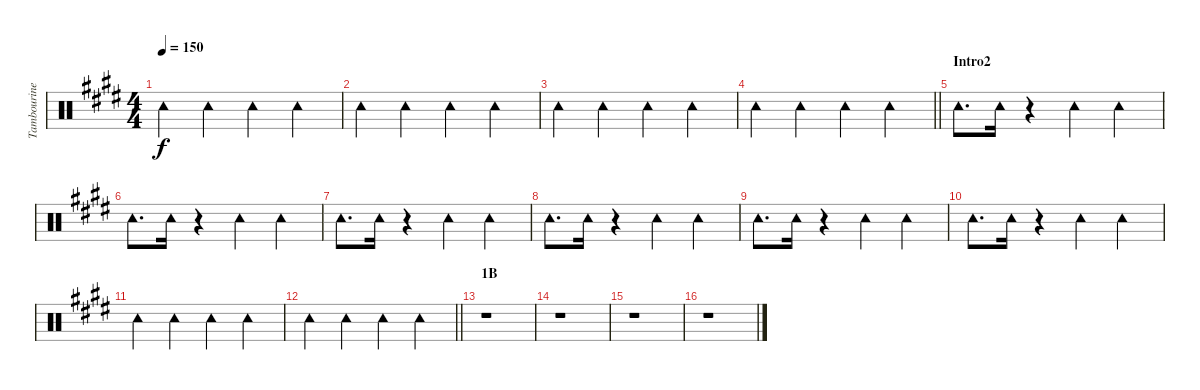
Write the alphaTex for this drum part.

\track ("Tambourine" "Tambourine") {instrument percussion}
\staff {score}
\articulation defaults
\ts (4 4)
\tempo 150
\clef neutral
\ks e "Tambourine (hit)".4{dy f} "Tambourine (hit)".4 "Tambourine (hit)".4 "Tambourine (hit)".4
|
"Tambourine (hit)".4 "Tambourine (hit)".4 "Tambourine (hit)".4 "Tambourine (hit)".4 |
"Tambourine (hit)".4 "Tambourine (hit)".4 "Tambourine (hit)".4 "Tambourine (hit)".4 |
\barLineRight lightlight "Tambourine (hit)".4 "Tambourine (hit)".4 "Tambourine (hit)".4 "Tambourine (hit)".4
|
\section ("" "Intro2")
"Tambourine (hit)".8{d} "Tambourine (hit)".16 r.4 "Tambourine (hit)".4 "Tambourine (hit)".4 |
"Tambourine (hit)".8{d} "Tambourine (hit)".16 r.4 "Tambourine (hit)".4 "Tambourine (hit)".4 |
"Tambourine (hit)".8{d} "Tambourine (hit)".16 r.4 "Tambourine (hit)".4 "Tambourine (hit)".4 |
"Tambourine (hit)".8{d} "Tambourine (hit)".16 r.4 "Tambourine (hit)".4 "Tambourine (hit)".4 |
"Tambourine (hit)".8{d} "Tambourine (hit)".16 r.4 "Tambourine (hit)".4 "Tambourine (hit)".4 |
"Tambourine (hit)".8{d} "Tambourine (hit)".16 r.4 "Tambourine (hit)".4 "Tambourine (hit)".4 |
"Tambourine (hit)".4 "Tambourine (hit)".4 "Tambourine (hit)".4 "Tambourine (hit)".4 |
\barLineRight lightlight "Tambourine (hit)".4 "Tambourine (hit)".4 "Tambourine (hit)".4 "Tambourine (hit)".4
|
\section ("" "1B")
r.1 |
r.1 |
r.1 |
r.1
